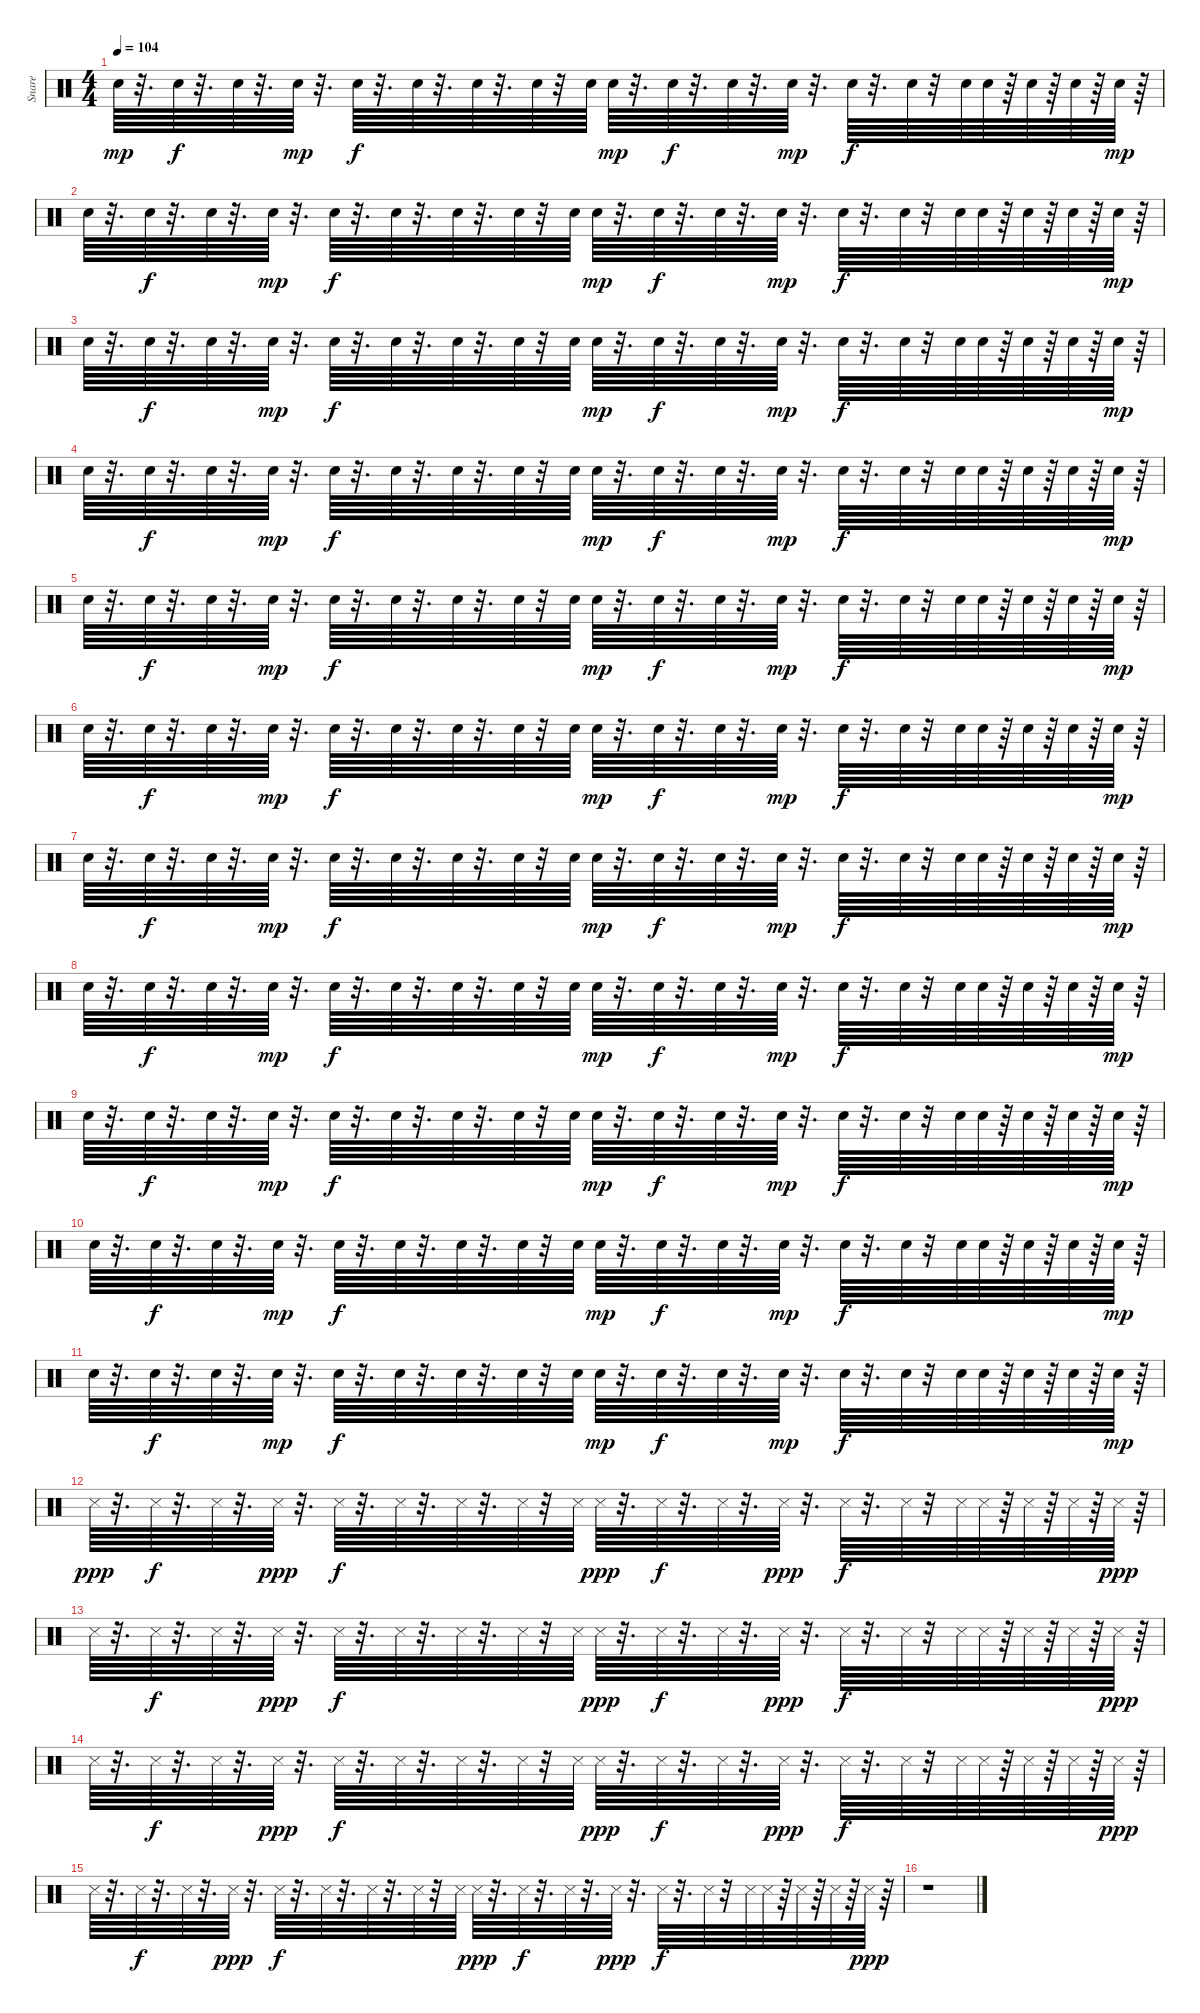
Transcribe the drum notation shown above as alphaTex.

\track ("Snare" "Snare") {instrument percussion}
\staff {score}
\articulation defaults
\ts (4 4)
\tempo 104
\clef neutral
\ks c "Snare (hit) 2".64{dy mp}
r.32{d} "Snare (hit) 2".64{dy f} r.32{d} "Snare (hit) 2".64 r.32{d} "Snare (hit) 2".64{dy mp} r.32{d} "Snare (hit) 2".64{dy f} r.32{d} "Snare (hit) 2".64 r.32{d} "Snare (hit) 2".64 r.32{d} "Snare (hit) 2".64 r.32 "Snare (hit) 2".64 "Snare (hit) 2".64{dy mp} r.32{d} "Snare (hit) 2".64{dy f} r.32{d} "Snare (hit) 2".64 r.32{d} "Snare (hit) 2".64{dy mp} r.32{d} "Snare (hit) 2".64{dy f} r.32{d} "Snare (hit) 2".64 r.32 "Snare (hit) 2".64 "Snare (hit) 2".64 r.64 "Snare (hit) 2".64 r.64 "Snare (hit) 2".64 r.64 "Snare (hit) 2".64{dy mp} r.64 |
"Snare (hit) 2".64 r.32{d} "Snare (hit) 2".64{dy f} r.32{d} "Snare (hit) 2".64 r.32{d} "Snare (hit) 2".64{dy mp} r.32{d} "Snare (hit) 2".64{dy f} r.32{d} "Snare (hit) 2".64 r.32{d} "Snare (hit) 2".64 r.32{d} "Snare (hit) 2".64 r.32 "Snare (hit) 2".64 "Snare (hit) 2".64{dy mp} r.32{d} "Snare (hit) 2".64{dy f} r.32{d} "Snare (hit) 2".64 r.32{d} "Snare (hit) 2".64{dy mp} r.32{d} "Snare (hit) 2".64{dy f} r.32{d} "Snare (hit) 2".64 r.32 "Snare (hit) 2".64 "Snare (hit) 2".64 r.64 "Snare (hit) 2".64 r.64 "Snare (hit) 2".64 r.64 "Snare (hit) 2".64{dy mp} r.64 |
"Snare (hit) 2".64 r.32{d} "Snare (hit) 2".64{dy f} r.32{d} "Snare (hit) 2".64 r.32{d} "Snare (hit) 2".64{dy mp} r.32{d} "Snare (hit) 2".64{dy f} r.32{d} "Snare (hit) 2".64 r.32{d} "Snare (hit) 2".64 r.32{d} "Snare (hit) 2".64 r.32 "Snare (hit) 2".64 "Snare (hit) 2".64{dy mp} r.32{d} "Snare (hit) 2".64{dy f} r.32{d} "Snare (hit) 2".64 r.32{d} "Snare (hit) 2".64{dy mp} r.32{d} "Snare (hit) 2".64{dy f} r.32{d} "Snare (hit) 2".64 r.32 "Snare (hit) 2".64 "Snare (hit) 2".64 r.64 "Snare (hit) 2".64 r.64 "Snare (hit) 2".64 r.64 "Snare (hit) 2".64{dy mp} r.64 |
"Snare (hit) 2".64 r.32{d} "Snare (hit) 2".64{dy f} r.32{d} "Snare (hit) 2".64 r.32{d} "Snare (hit) 2".64{dy mp} r.32{d} "Snare (hit) 2".64{dy f} r.32{d} "Snare (hit) 2".64 r.32{d} "Snare (hit) 2".64 r.32{d} "Snare (hit) 2".64 r.32 "Snare (hit) 2".64 "Snare (hit) 2".64{dy mp} r.32{d} "Snare (hit) 2".64{dy f} r.32{d} "Snare (hit) 2".64 r.32{d} "Snare (hit) 2".64{dy mp} r.32{d} "Snare (hit) 2".64{dy f} r.32{d} "Snare (hit) 2".64 r.32 "Snare (hit) 2".64 "Snare (hit) 2".64 r.64 "Snare (hit) 2".64 r.64 "Snare (hit) 2".64 r.64 "Snare (hit) 2".64{dy mp} r.64 |
"Snare (hit) 2".64 r.32{d} "Snare (hit) 2".64{dy f} r.32{d} "Snare (hit) 2".64 r.32{d} "Snare (hit) 2".64{dy mp} r.32{d} "Snare (hit) 2".64{dy f} r.32{d} "Snare (hit) 2".64 r.32{d} "Snare (hit) 2".64 r.32{d} "Snare (hit) 2".64 r.32 "Snare (hit) 2".64 "Snare (hit) 2".64{dy mp} r.32{d} "Snare (hit) 2".64{dy f} r.32{d} "Snare (hit) 2".64 r.32{d} "Snare (hit) 2".64{dy mp} r.32{d} "Snare (hit) 2".64{dy f} r.32{d} "Snare (hit) 2".64 r.32 "Snare (hit) 2".64 "Snare (hit) 2".64 r.64 "Snare (hit) 2".64 r.64 "Snare (hit) 2".64 r.64 "Snare (hit) 2".64{dy mp} r.64 |
"Snare (hit) 2".64 r.32{d} "Snare (hit) 2".64{dy f} r.32{d} "Snare (hit) 2".64 r.32{d} "Snare (hit) 2".64{dy mp} r.32{d} "Snare (hit) 2".64{dy f} r.32{d} "Snare (hit) 2".64 r.32{d} "Snare (hit) 2".64 r.32{d} "Snare (hit) 2".64 r.32 "Snare (hit) 2".64 "Snare (hit) 2".64{dy mp} r.32{d} "Snare (hit) 2".64{dy f} r.32{d} "Snare (hit) 2".64 r.32{d} "Snare (hit) 2".64{dy mp} r.32{d} "Snare (hit) 2".64{dy f} r.32{d} "Snare (hit) 2".64 r.32 "Snare (hit) 2".64 "Snare (hit) 2".64 r.64 "Snare (hit) 2".64 r.64 "Snare (hit) 2".64 r.64 "Snare (hit) 2".64{dy mp} r.64 |
"Snare (hit) 2".64 r.32{d} "Snare (hit) 2".64{dy f} r.32{d} "Snare (hit) 2".64 r.32{d} "Snare (hit) 2".64{dy mp} r.32{d} "Snare (hit) 2".64{dy f} r.32{d} "Snare (hit) 2".64 r.32{d} "Snare (hit) 2".64 r.32{d} "Snare (hit) 2".64 r.32 "Snare (hit) 2".64 "Snare (hit) 2".64{dy mp} r.32{d} "Snare (hit) 2".64{dy f} r.32{d} "Snare (hit) 2".64 r.32{d} "Snare (hit) 2".64{dy mp} r.32{d} "Snare (hit) 2".64{dy f} r.32{d} "Snare (hit) 2".64 r.32 "Snare (hit) 2".64 "Snare (hit) 2".64 r.64 "Snare (hit) 2".64 r.64 "Snare (hit) 2".64 r.64 "Snare (hit) 2".64{dy mp} r.64 |
"Snare (hit) 2".64 r.32{d} "Snare (hit) 2".64{dy f} r.32{d} "Snare (hit) 2".64 r.32{d} "Snare (hit) 2".64{dy mp} r.32{d} "Snare (hit) 2".64{dy f} r.32{d} "Snare (hit) 2".64 r.32{d} "Snare (hit) 2".64 r.32{d} "Snare (hit) 2".64 r.32 "Snare (hit) 2".64 "Snare (hit) 2".64{dy mp} r.32{d} "Snare (hit) 2".64{dy f} r.32{d} "Snare (hit) 2".64 r.32{d} "Snare (hit) 2".64{dy mp} r.32{d} "Snare (hit) 2".64{dy f} r.32{d} "Snare (hit) 2".64 r.32 "Snare (hit) 2".64 "Snare (hit) 2".64 r.64 "Snare (hit) 2".64 r.64 "Snare (hit) 2".64 r.64 "Snare (hit) 2".64{dy mp} r.64 |
"Snare (hit) 2".64 r.32{d} "Snare (hit) 2".64{dy f} r.32{d} "Snare (hit) 2".64 r.32{d} "Snare (hit) 2".64{dy mp} r.32{d} "Snare (hit) 2".64{dy f} r.32{d} "Snare (hit) 2".64 r.32{d} "Snare (hit) 2".64 r.32{d} "Snare (hit) 2".64 r.32 "Snare (hit) 2".64 "Snare (hit) 2".64{dy mp} r.32{d} "Snare (hit) 2".64{dy f} r.32{d} "Snare (hit) 2".64 r.32{d} "Snare (hit) 2".64{dy mp} r.32{d} "Snare (hit) 2".64{dy f} r.32{d} "Snare (hit) 2".64 r.32 "Snare (hit) 2".64 "Snare (hit) 2".64 r.64 "Snare (hit) 2".64 r.64 "Snare (hit) 2".64 r.64 "Snare (hit) 2".64{dy mp} r.64 |
"Snare (hit) 2".64 r.32{d} "Snare (hit) 2".64{dy f} r.32{d} "Snare (hit) 2".64 r.32{d} "Snare (hit) 2".64{dy mp} r.32{d} "Snare (hit) 2".64{dy f} r.32{d} "Snare (hit) 2".64 r.32{d} "Snare (hit) 2".64 r.32{d} "Snare (hit) 2".64 r.32 "Snare (hit) 2".64 "Snare (hit) 2".64{dy mp} r.32{d} "Snare (hit) 2".64{dy f} r.32{d} "Snare (hit) 2".64 r.32{d} "Snare (hit) 2".64{dy mp} r.32{d} "Snare (hit) 2".64{dy f} r.32{d} "Snare (hit) 2".64 r.32 "Snare (hit) 2".64 "Snare (hit) 2".64 r.64 "Snare (hit) 2".64 r.64 "Snare (hit) 2".64 r.64 "Snare (hit) 2".64{dy mp} r.64 |
"Snare (hit) 2".64 r.32{d} "Snare (hit) 2".64{dy f} r.32{d} "Snare (hit) 2".64 r.32{d} "Snare (hit) 2".64{dy mp} r.32{d} "Snare (hit) 2".64{dy f} r.32{d} "Snare (hit) 2".64 r.32{d} "Snare (hit) 2".64 r.32{d} "Snare (hit) 2".64 r.32 "Snare (hit) 2".64 "Snare (hit) 2".64{dy mp} r.32{d} "Snare (hit) 2".64{dy f} r.32{d} "Snare (hit) 2".64 r.32{d} "Snare (hit) 2".64{dy mp} r.32{d} "Snare (hit) 2".64{dy f} r.32{d} "Snare (hit) 2".64 r.32 "Snare (hit) 2".64 "Snare (hit) 2".64 r.64 "Snare (hit) 2".64 r.64 "Snare (hit) 2".64 r.64 "Snare (hit) 2".64{dy mp} r.64 |
"Snare (side stick) 3".64{dy ppp} r.32{d} "Snare (side stick) 3".64{dy f} r.32{d} "Snare (side stick) 3".64 r.32{d} "Snare (side stick) 3".64{dy ppp} r.32{d} "Snare (side stick) 3".64{dy f} r.32{d} "Snare (side stick) 3".64 r.32{d} "Snare (side stick) 3".64 r.32{d} "Snare (side stick) 3".64 r.32 "Snare (side stick) 3".64 "Snare (side stick) 3".64{dy ppp} r.32{d} "Snare (side stick) 3".64{dy f} r.32{d} "Snare (side stick) 3".64 r.32{d} "Snare (side stick) 3".64{dy ppp} r.32{d} "Snare (side stick) 3".64{dy f} r.32{d} "Snare (side stick) 3".64 r.32 "Snare (side stick) 3".64 "Snare (side stick) 3".64 r.64 "Snare (side stick) 3".64 r.64 "Snare (side stick) 3".64 r.64 "Snare (side stick) 3".64{dy ppp} r.64 |
"Snare (side stick) 3".64 r.32{d} "Snare (side stick) 3".64{dy f} r.32{d} "Snare (side stick) 3".64 r.32{d} "Snare (side stick) 3".64{dy ppp} r.32{d} "Snare (side stick) 3".64{dy f} r.32{d} "Snare (side stick) 3".64 r.32{d} "Snare (side stick) 3".64 r.32{d} "Snare (side stick) 3".64 r.32 "Snare (side stick) 3".64 "Snare (side stick) 3".64{dy ppp} r.32{d} "Snare (side stick) 3".64{dy f} r.32{d} "Snare (side stick) 3".64 r.32{d} "Snare (side stick) 3".64{dy ppp} r.32{d} "Snare (side stick) 3".64{dy f} r.32{d} "Snare (side stick) 3".64 r.32 "Snare (side stick) 3".64 "Snare (side stick) 3".64 r.64 "Snare (side stick) 3".64 r.64 "Snare (side stick) 3".64 r.64 "Snare (side stick) 3".64{dy ppp} r.64 |
"Snare (side stick) 3".64 r.32{d} "Snare (side stick) 3".64{dy f} r.32{d} "Snare (side stick) 3".64 r.32{d} "Snare (side stick) 3".64{dy ppp} r.32{d} "Snare (side stick) 3".64{dy f} r.32{d} "Snare (side stick) 3".64 r.32{d} "Snare (side stick) 3".64 r.32{d} "Snare (side stick) 3".64 r.32 "Snare (side stick) 3".64 "Snare (side stick) 3".64{dy ppp} r.32{d} "Snare (side stick) 3".64{dy f} r.32{d} "Snare (side stick) 3".64 r.32{d} "Snare (side stick) 3".64{dy ppp} r.32{d} "Snare (side stick) 3".64{dy f} r.32{d} "Snare (side stick) 3".64 r.32 "Snare (side stick) 3".64 "Snare (side stick) 3".64 r.64 "Snare (side stick) 3".64 r.64 "Snare (side stick) 3".64 r.64 "Snare (side stick) 3".64{dy ppp} r.64 |
"Snare (side stick) 3".64 r.32{d} "Snare (side stick) 3".64{dy f} r.32{d} "Snare (side stick) 3".64 r.32{d} "Snare (side stick) 3".64{dy ppp} r.32{d} "Snare (side stick) 3".64{dy f} r.32{d} "Snare (side stick) 3".64 r.32{d} "Snare (side stick) 3".64 r.32{d} "Snare (side stick) 3".64 r.32 "Snare (side stick) 3".64 "Snare (side stick) 3".64{dy ppp} r.32{d} "Snare (side stick) 3".64{dy f} r.32{d} "Snare (side stick) 3".64 r.32{d} "Snare (side stick) 3".64{dy ppp} r.32{d} "Snare (side stick) 3".64{dy f} r.32{d} "Snare (side stick) 3".64 r.32 "Snare (side stick) 3".64 "Snare (side stick) 3".64 r.64 "Snare (side stick) 3".64 r.64 "Snare (side stick) 3".64 r.64 "Snare (side stick) 3".64{dy ppp} r.64 |
r.1
